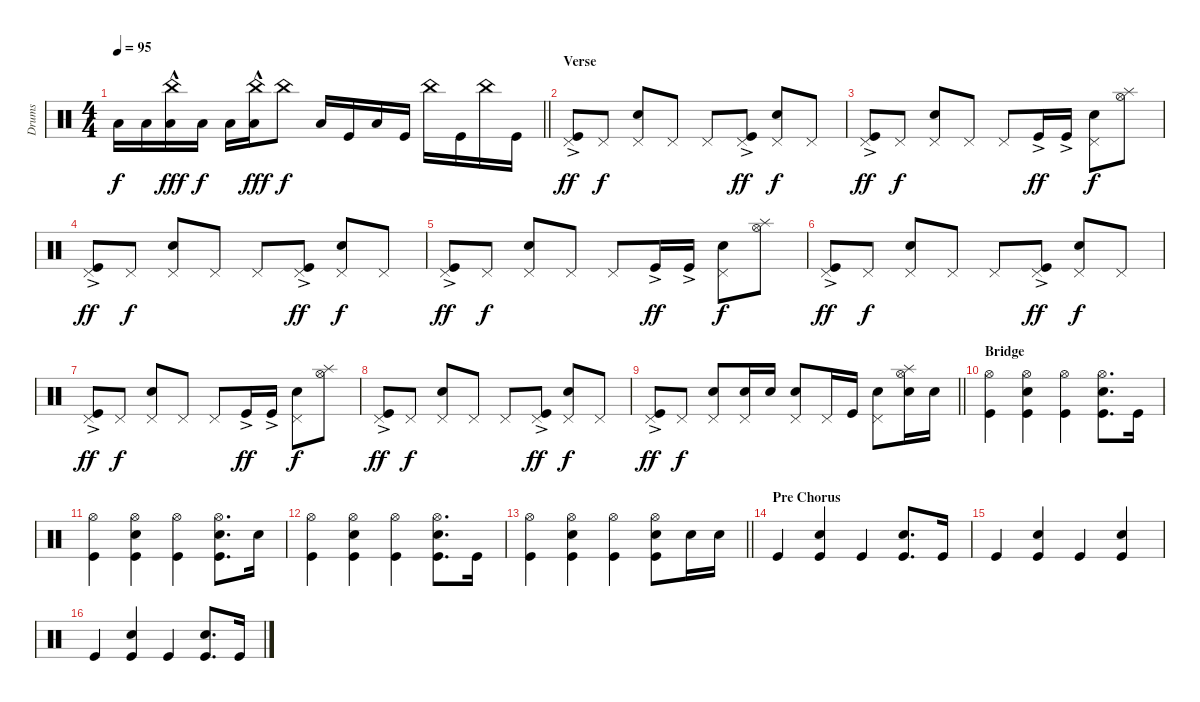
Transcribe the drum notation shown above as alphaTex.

\track ("Drums" "Drums") {instrument percussion}
\staff {score}
\articulation defaults
\ts (4 4)
\tempo 95
\clef neutral
\barLineRight lightlight
\ks c "Low Floor Tom (hit)".16{dy f volume 9} "Low Floor Tom (hit)".16
("Low Floor Tom (hit)"{hac} "China (hit)").16{dy fff} "Low Floor Tom (hit)".16{dy f} "Low Floor Tom (hit)".16 ("Low Floor Tom (hit)"{hac} "China (hit)").16{dy fff} "China (hit)".8{dy f} "Low Floor Tom (hit)".16 "Kick (hit)".16 "Low Floor Tom (hit)".16 "Kick (hit)".16 "China (hit)".16 "Kick (hit)".16 "China (hit)".16 "Kick (hit)".16 |
\section ("" "Verse")
("Pedal Hi-Hat (hit)" "Kick (hit)"{ac}).8{dy ff volume 14} "Pedal Hi-Hat (hit)".8{dy f} ("Snare (hit) 2" "Pedal Hi-Hat (hit)").8 "Pedal Hi-Hat (hit)".8 "Pedal Hi-Hat (hit)".8 ("Kick (hit)"{ac} "Pedal Hi-Hat (hit)").8{dy ff} ("Snare (hit) 2" "Pedal Hi-Hat (hit)").8{dy f} "Pedal Hi-Hat (hit)".8 |
("Kick (hit)"{ac} "Pedal Hi-Hat (hit)").8{dy ff} "Pedal Hi-Hat (hit)".8{dy f} ("Snare (hit) 2" "Pedal Hi-Hat (hit)").8 "Pedal Hi-Hat (hit)".8 "Pedal Hi-Hat (hit)".8 "Kick (hit)"{ac}.16{dy ff} "Kick (hit)"{ac}.16 ("Snare (hit) 2" "Pedal Hi-Hat (hit)").8{dy f} ("Hi-Hat (open)" "Splash (hit)").8 |
("Pedal Hi-Hat (hit)" "Kick (hit)"{ac}).8{dy ff} "Pedal Hi-Hat (hit)".8{dy f} ("Snare (hit) 2" "Pedal Hi-Hat (hit)").8 "Pedal Hi-Hat (hit)".8 "Pedal Hi-Hat (hit)".8 ("Kick (hit)"{ac} "Pedal Hi-Hat (hit)").8{dy ff} ("Snare (hit) 2" "Pedal Hi-Hat (hit)").8{dy f} "Pedal Hi-Hat (hit)".8 |
("Kick (hit)"{ac} "Pedal Hi-Hat (hit)").8{dy ff} "Pedal Hi-Hat (hit)".8{dy f} ("Snare (hit) 2" "Pedal Hi-Hat (hit)").8 "Pedal Hi-Hat (hit)".8 "Pedal Hi-Hat (hit)".8 "Kick (hit)"{ac}.16{dy ff} "Kick (hit)"{ac}.16 ("Snare (hit) 2" "Pedal Hi-Hat (hit)").8{dy f} ("Hi-Hat (open)" "Splash (hit)").8 |
("Pedal Hi-Hat (hit)" "Kick (hit)"{ac}).8{dy ff} "Pedal Hi-Hat (hit)".8{dy f} ("Snare (hit) 2" "Pedal Hi-Hat (hit)").8 "Pedal Hi-Hat (hit)".8 "Pedal Hi-Hat (hit)".8 ("Kick (hit)"{ac} "Pedal Hi-Hat (hit)").8{dy ff} ("Snare (hit) 2" "Pedal Hi-Hat (hit)").8{dy f} "Pedal Hi-Hat (hit)".8 |
("Kick (hit)"{ac} "Pedal Hi-Hat (hit)").8{dy ff} "Pedal Hi-Hat (hit)".8{dy f} ("Snare (hit) 2" "Pedal Hi-Hat (hit)").8 "Pedal Hi-Hat (hit)".8 "Pedal Hi-Hat (hit)".8 "Kick (hit)"{ac}.16{dy ff} "Kick (hit)"{ac}.16 ("Snare (hit) 2" "Pedal Hi-Hat (hit)").8{dy f} ("Hi-Hat (open)" "Splash (hit)").8 |
("Pedal Hi-Hat (hit)" "Kick (hit)"{ac}).8{dy ff} "Pedal Hi-Hat (hit)".8{dy f} ("Snare (hit) 2" "Pedal Hi-Hat (hit)").8 "Pedal Hi-Hat (hit)".8 "Pedal Hi-Hat (hit)".8 ("Kick (hit)"{ac} "Pedal Hi-Hat (hit)").8{dy ff} ("Snare (hit) 2" "Pedal Hi-Hat (hit)").8{dy f} "Pedal Hi-Hat (hit)".8 |
\barLineRight lightlight
("Pedal Hi-Hat (hit)" "Kick (hit)"{ac}).8{dy ff} "Pedal Hi-Hat (hit)".8{dy f} ("Pedal Hi-Hat (hit)" "Snare (hit) 2").8 ("Snare (hit) 2" "Pedal Hi-Hat (hit)").16 "Snare (hit) 2".16 ("Snare (hit) 2" "Pedal Hi-Hat (hit)").8 "Pedal Hi-Hat (hit)".16 "Kick (hit)".16 ("Pedal Hi-Hat (hit)" "Snare (hit) 2").8 ("Snare (hit) 2" "Hi-Hat (open)" "Splash (hit)").16 "Snare (hit) 2".16 |
\section ("" "Bridge")
("Hi-Hat (open)" "Kick (hit)").4 ("Kick (hit)" "Hi-Hat (open)" "Snare (hit) 2").4 ("Hi-Hat (open)" "Kick (hit)").4 ("Kick (hit)" "Hi-Hat (open)" "Snare (hit) 2").8{d} "Kick (hit)".16 |
("Hi-Hat (open)" "Kick (hit)").4 ("Kick (hit)" "Hi-Hat (open)" "Snare (hit) 2").4 ("Kick (hit)" "Hi-Hat (open)").4 ("Kick (hit)" "Hi-Hat (open)" "Snare (hit) 2").8{d} "Snare (hit) 2".16 |
("Hi-Hat (open)" "Kick (hit)").4 ("Kick (hit)" "Hi-Hat (open)" "Snare (hit) 2").4 ("Hi-Hat (open)" "Kick (hit)").4 ("Kick (hit)" "Hi-Hat (open)" "Snare (hit) 2").8{d} "Kick (hit)".16 |
\barLineRight lightlight
("Hi-Hat (open)" "Kick (hit)").4 ("Kick (hit)" "Hi-Hat (open)" "Snare (hit) 2").4 ("Kick (hit)" "Hi-Hat (open)").4 ("Snare (hit) 2" "Kick (hit)" "Hi-Hat (open)").8 "Snare (hit) 2".16 "Snare (hit) 2".16 |
\section ("" "Pre Chorus")
"Kick (hit)".4 ("Kick (hit)" "Snare (hit) 2").4 "Kick (hit)".4 ("Kick (hit)" "Snare (hit) 2").8{d} "Kick (hit)".16 |
"Kick (hit)".4 ("Kick (hit)" "Snare (hit) 2").4 "Kick (hit)".4 ("Kick (hit)" "Snare (hit) 2").4 |
"Kick (hit)".4 ("Kick (hit)" "Snare (hit) 2").4 "Kick (hit)".4 ("Kick (hit)" "Snare (hit) 2").8{d} "Kick (hit)".16
